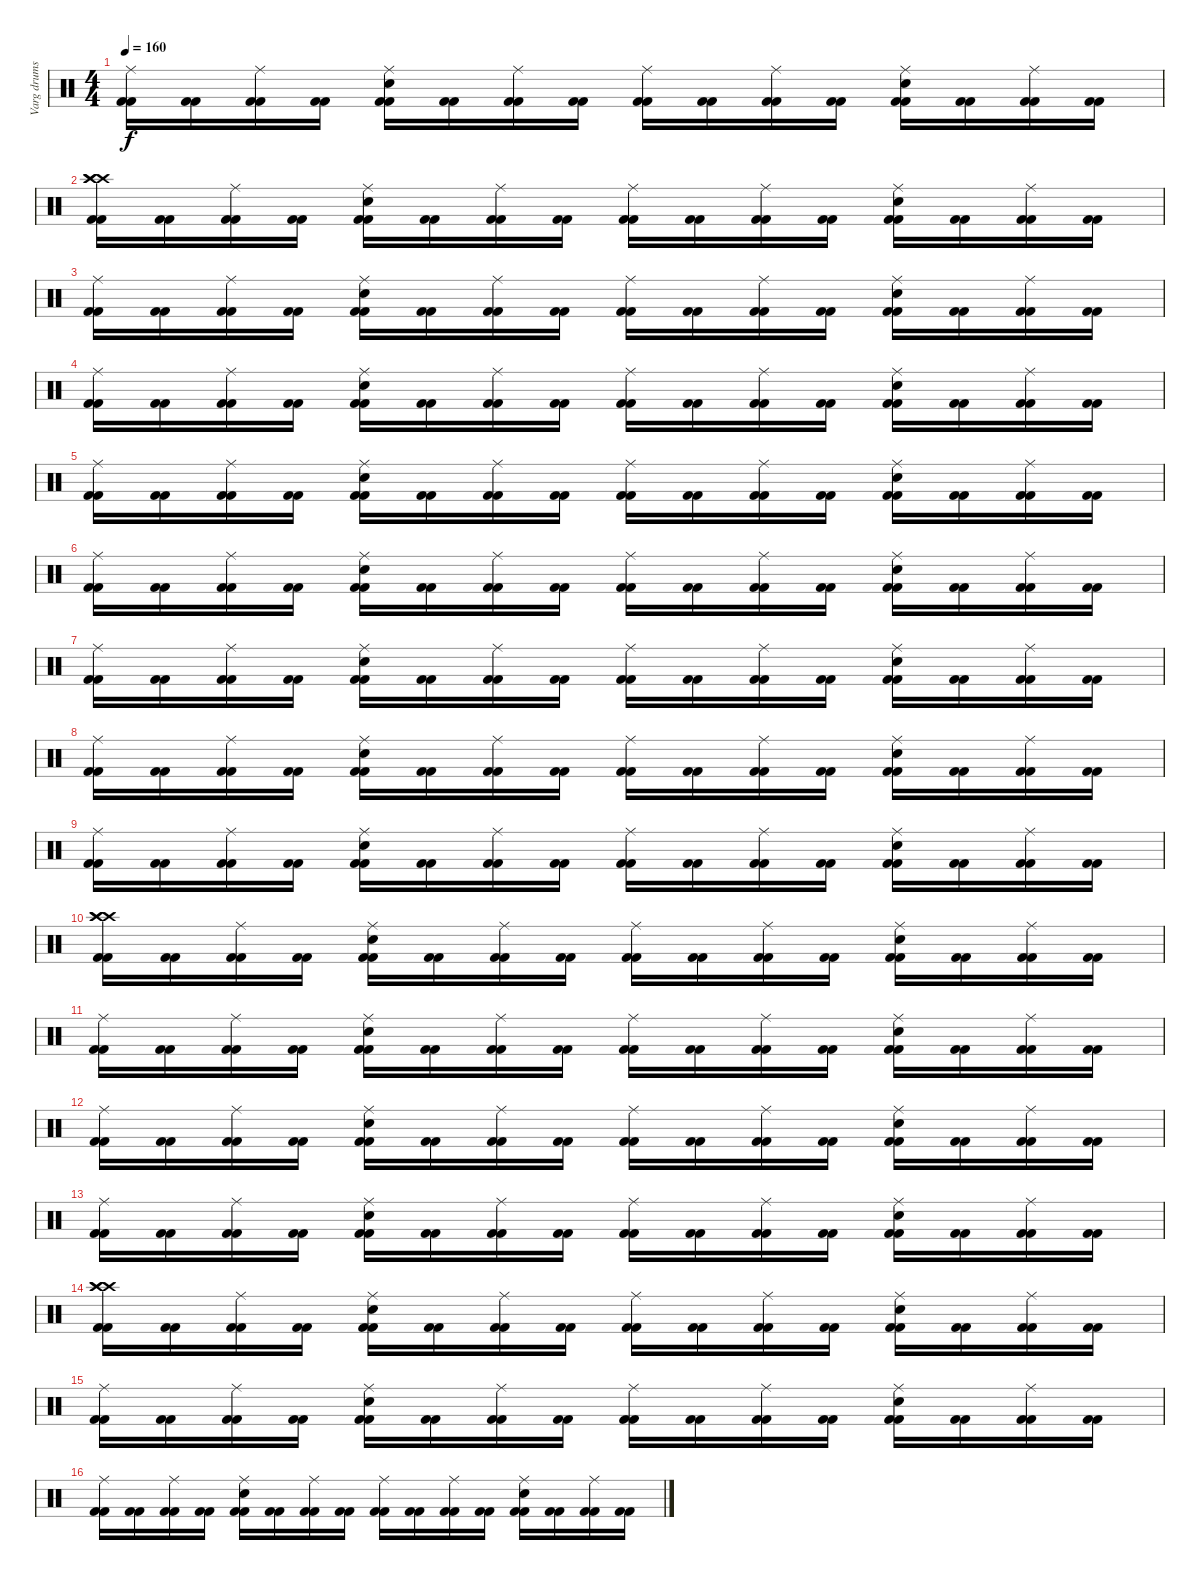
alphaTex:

\track ("Varg drums" "Varg drums") {instrument percussion}
\staff {score}
\articulation defaults
\ts (4 4)
\tempo 160
\clef neutral
\ks c
("Ride (middle)" "Kick (hit) 2" "Kick (hit) 2").16{dy f} ("Kick (hit) 2" "Kick (hit) 2").16 ("Ride (middle)" "Kick (hit) 2" "Kick (hit) 2").16 ("Kick (hit) 2" "Kick (hit) 2").16 ("Ride (middle)" "Electric Snare (hit)" "Kick (hit) 2" "Kick (hit) 2").16 ("Kick (hit) 2" "Kick (hit) 2").16 ("Ride (middle)" "Kick (hit) 2" "Kick (hit) 2").16 ("Kick (hit) 2" "Kick (hit) 2").16 ("Ride (middle)" "Kick (hit) 2" "Kick (hit) 2").16 ("Kick (hit) 2" "Kick (hit) 2").16 ("Ride (middle)" "Kick (hit) 2" "Kick (hit) 2").16 ("Kick (hit) 2" "Kick (hit) 2").16 ("Ride (middle)" "Electric Snare (hit)" "Kick (hit) 2" "Kick (hit) 2").16 ("Kick (hit) 2" "Kick (hit) 2").16 ("Ride (middle)" "Kick (hit) 2" "Kick (hit) 2").16 ("Kick (hit) 2" "Kick (hit) 2").16 |
("Crash high (hit)" "Crash high (hit)" "Crash high (hit)" "Kick (hit) 2" "Kick (hit) 2").16 ("Kick (hit) 2" "Kick (hit) 2").16 ("Ride (middle)" "Kick (hit) 2" "Kick (hit) 2").16 ("Kick (hit) 2" "Kick (hit) 2").16 ("Ride (middle)" "Electric Snare (hit)" "Kick (hit) 2" "Kick (hit) 2").16 ("Kick (hit) 2" "Kick (hit) 2").16 ("Ride (middle)" "Kick (hit) 2" "Kick (hit) 2").16 ("Kick (hit) 2" "Kick (hit) 2").16 ("Ride (middle)" "Kick (hit) 2" "Kick (hit) 2").16 ("Kick (hit) 2" "Kick (hit) 2").16 ("Ride (middle)" "Kick (hit) 2" "Kick (hit) 2").16 ("Kick (hit) 2" "Kick (hit) 2").16 ("Ride (middle)" "Electric Snare (hit)" "Kick (hit) 2" "Kick (hit) 2").16 ("Kick (hit) 2" "Kick (hit) 2").16 ("Ride (middle)" "Kick (hit) 2" "Kick (hit) 2").16 ("Kick (hit) 2" "Kick (hit) 2").16 |
("Ride (middle)" "Kick (hit) 2" "Kick (hit) 2").16 ("Kick (hit) 2" "Kick (hit) 2").16 ("Ride (middle)" "Kick (hit) 2" "Kick (hit) 2").16 ("Kick (hit) 2" "Kick (hit) 2").16 ("Ride (middle)" "Electric Snare (hit)" "Kick (hit) 2" "Kick (hit) 2").16 ("Kick (hit) 2" "Kick (hit) 2").16 ("Ride (middle)" "Kick (hit) 2" "Kick (hit) 2").16 ("Kick (hit) 2" "Kick (hit) 2").16 ("Ride (middle)" "Kick (hit) 2" "Kick (hit) 2").16 ("Kick (hit) 2" "Kick (hit) 2").16 ("Ride (middle)" "Kick (hit) 2" "Kick (hit) 2").16 ("Kick (hit) 2" "Kick (hit) 2").16 ("Ride (middle)" "Electric Snare (hit)" "Kick (hit) 2" "Kick (hit) 2").16 ("Kick (hit) 2" "Kick (hit) 2").16 ("Ride (middle)" "Kick (hit) 2" "Kick (hit) 2").16 ("Kick (hit) 2" "Kick (hit) 2").16 |
("Ride (middle)" "Kick (hit) 2" "Kick (hit) 2").16 ("Kick (hit) 2" "Kick (hit) 2").16 ("Ride (middle)" "Kick (hit) 2" "Kick (hit) 2").16 ("Kick (hit) 2" "Kick (hit) 2").16 ("Ride (middle)" "Electric Snare (hit)" "Kick (hit) 2" "Kick (hit) 2").16 ("Kick (hit) 2" "Kick (hit) 2").16 ("Ride (middle)" "Kick (hit) 2" "Kick (hit) 2").16 ("Kick (hit) 2" "Kick (hit) 2").16 ("Ride (middle)" "Kick (hit) 2" "Kick (hit) 2").16 ("Kick (hit) 2" "Kick (hit) 2").16 ("Ride (middle)" "Kick (hit) 2" "Kick (hit) 2").16 ("Kick (hit) 2" "Kick (hit) 2").16 ("Ride (middle)" "Electric Snare (hit)" "Kick (hit) 2" "Kick (hit) 2").16 ("Kick (hit) 2" "Kick (hit) 2").16 ("Ride (middle)" "Kick (hit) 2" "Kick (hit) 2").16 ("Kick (hit) 2" "Kick (hit) 2").16 |
("Ride (middle)" "Kick (hit) 2" "Kick (hit) 2").16 ("Kick (hit) 2" "Kick (hit) 2").16 ("Ride (middle)" "Kick (hit) 2" "Kick (hit) 2").16 ("Kick (hit) 2" "Kick (hit) 2").16 ("Ride (middle)" "Electric Snare (hit)" "Kick (hit) 2" "Kick (hit) 2").16 ("Kick (hit) 2" "Kick (hit) 2").16 ("Ride (middle)" "Kick (hit) 2" "Kick (hit) 2").16 ("Kick (hit) 2" "Kick (hit) 2").16 ("Ride (middle)" "Kick (hit) 2" "Kick (hit) 2").16 ("Kick (hit) 2" "Kick (hit) 2").16 ("Ride (middle)" "Kick (hit) 2" "Kick (hit) 2").16 ("Kick (hit) 2" "Kick (hit) 2").16 ("Ride (middle)" "Electric Snare (hit)" "Kick (hit) 2" "Kick (hit) 2").16 ("Kick (hit) 2" "Kick (hit) 2").16 ("Ride (middle)" "Kick (hit) 2" "Kick (hit) 2").16 ("Kick (hit) 2" "Kick (hit) 2").16 |
("Ride (middle)" "Kick (hit) 2" "Kick (hit) 2").16 ("Kick (hit) 2" "Kick (hit) 2").16 ("Ride (middle)" "Kick (hit) 2" "Kick (hit) 2").16 ("Kick (hit) 2" "Kick (hit) 2").16 ("Ride (middle)" "Electric Snare (hit)" "Kick (hit) 2" "Kick (hit) 2").16 ("Kick (hit) 2" "Kick (hit) 2").16 ("Ride (middle)" "Kick (hit) 2" "Kick (hit) 2").16 ("Kick (hit) 2" "Kick (hit) 2").16 ("Ride (middle)" "Kick (hit) 2" "Kick (hit) 2").16 ("Kick (hit) 2" "Kick (hit) 2").16 ("Ride (middle)" "Kick (hit) 2" "Kick (hit) 2").16 ("Kick (hit) 2" "Kick (hit) 2").16 ("Ride (middle)" "Electric Snare (hit)" "Kick (hit) 2" "Kick (hit) 2").16 ("Kick (hit) 2" "Kick (hit) 2").16 ("Ride (middle)" "Kick (hit) 2" "Kick (hit) 2").16 ("Kick (hit) 2" "Kick (hit) 2").16 |
("Ride (middle)" "Kick (hit) 2" "Kick (hit) 2").16 ("Kick (hit) 2" "Kick (hit) 2").16 ("Ride (middle)" "Kick (hit) 2" "Kick (hit) 2").16 ("Kick (hit) 2" "Kick (hit) 2").16 ("Ride (middle)" "Electric Snare (hit)" "Kick (hit) 2" "Kick (hit) 2").16 ("Kick (hit) 2" "Kick (hit) 2").16 ("Ride (middle)" "Kick (hit) 2" "Kick (hit) 2").16 ("Kick (hit) 2" "Kick (hit) 2").16 ("Ride (middle)" "Kick (hit) 2" "Kick (hit) 2").16 ("Kick (hit) 2" "Kick (hit) 2").16 ("Ride (middle)" "Kick (hit) 2" "Kick (hit) 2").16 ("Kick (hit) 2" "Kick (hit) 2").16 ("Ride (middle)" "Electric Snare (hit)" "Kick (hit) 2" "Kick (hit) 2").16 ("Kick (hit) 2" "Kick (hit) 2").16 ("Ride (middle)" "Kick (hit) 2" "Kick (hit) 2").16 ("Kick (hit) 2" "Kick (hit) 2").16 |
("Ride (middle)" "Kick (hit) 2" "Kick (hit) 2").16 ("Kick (hit) 2" "Kick (hit) 2").16 ("Ride (middle)" "Kick (hit) 2" "Kick (hit) 2").16 ("Kick (hit) 2" "Kick (hit) 2").16 ("Ride (middle)" "Electric Snare (hit)" "Kick (hit) 2" "Kick (hit) 2").16 ("Kick (hit) 2" "Kick (hit) 2").16 ("Ride (middle)" "Kick (hit) 2" "Kick (hit) 2").16 ("Kick (hit) 2" "Kick (hit) 2").16 ("Ride (middle)" "Kick (hit) 2" "Kick (hit) 2").16 ("Kick (hit) 2" "Kick (hit) 2").16 ("Ride (middle)" "Kick (hit) 2" "Kick (hit) 2").16 ("Kick (hit) 2" "Kick (hit) 2").16 ("Ride (middle)" "Electric Snare (hit)" "Kick (hit) 2" "Kick (hit) 2").16 ("Kick (hit) 2" "Kick (hit) 2").16 ("Ride (middle)" "Kick (hit) 2" "Kick (hit) 2").16 ("Kick (hit) 2" "Kick (hit) 2").16 |
("Ride (middle)" "Kick (hit) 2" "Kick (hit) 2").16 ("Kick (hit) 2" "Kick (hit) 2").16 ("Ride (middle)" "Kick (hit) 2" "Kick (hit) 2").16 ("Kick (hit) 2" "Kick (hit) 2").16 ("Ride (middle)" "Electric Snare (hit)" "Kick (hit) 2" "Kick (hit) 2").16 ("Kick (hit) 2" "Kick (hit) 2").16 ("Ride (middle)" "Kick (hit) 2" "Kick (hit) 2").16 ("Kick (hit) 2" "Kick (hit) 2").16 ("Ride (middle)" "Kick (hit) 2" "Kick (hit) 2").16 ("Kick (hit) 2" "Kick (hit) 2").16 ("Ride (middle)" "Kick (hit) 2" "Kick (hit) 2").16 ("Kick (hit) 2" "Kick (hit) 2").16 ("Ride (middle)" "Electric Snare (hit)" "Kick (hit) 2" "Kick (hit) 2").16 ("Kick (hit) 2" "Kick (hit) 2").16 ("Ride (middle)" "Kick (hit) 2" "Kick (hit) 2").16 ("Kick (hit) 2" "Kick (hit) 2").16 |
("Crash high (hit)" "Crash high (hit)" "Crash high (hit)" "Kick (hit) 2" "Kick (hit) 2").16 ("Kick (hit) 2" "Kick (hit) 2").16 ("Ride (middle)" "Kick (hit) 2" "Kick (hit) 2").16 ("Kick (hit) 2" "Kick (hit) 2").16 ("Ride (middle)" "Electric Snare (hit)" "Kick (hit) 2" "Kick (hit) 2").16 ("Kick (hit) 2" "Kick (hit) 2").16 ("Ride (middle)" "Kick (hit) 2" "Kick (hit) 2").16 ("Kick (hit) 2" "Kick (hit) 2").16 ("Ride (middle)" "Kick (hit) 2" "Kick (hit) 2").16 ("Kick (hit) 2" "Kick (hit) 2").16 ("Ride (middle)" "Kick (hit) 2" "Kick (hit) 2").16 ("Kick (hit) 2" "Kick (hit) 2").16 ("Ride (middle)" "Electric Snare (hit)" "Kick (hit) 2" "Kick (hit) 2").16 ("Kick (hit) 2" "Kick (hit) 2").16 ("Ride (middle)" "Kick (hit) 2" "Kick (hit) 2").16 ("Kick (hit) 2" "Kick (hit) 2").16 |
("Ride (middle)" "Kick (hit) 2" "Kick (hit) 2").16 ("Kick (hit) 2" "Kick (hit) 2").16 ("Ride (middle)" "Kick (hit) 2" "Kick (hit) 2").16 ("Kick (hit) 2" "Kick (hit) 2").16 ("Ride (middle)" "Electric Snare (hit)" "Kick (hit) 2" "Kick (hit) 2").16 ("Kick (hit) 2" "Kick (hit) 2").16 ("Ride (middle)" "Kick (hit) 2" "Kick (hit) 2").16 ("Kick (hit) 2" "Kick (hit) 2").16 ("Ride (middle)" "Kick (hit) 2" "Kick (hit) 2").16 ("Kick (hit) 2" "Kick (hit) 2").16 ("Ride (middle)" "Kick (hit) 2" "Kick (hit) 2").16 ("Kick (hit) 2" "Kick (hit) 2").16 ("Ride (middle)" "Electric Snare (hit)" "Kick (hit) 2" "Kick (hit) 2").16 ("Kick (hit) 2" "Kick (hit) 2").16 ("Ride (middle)" "Kick (hit) 2" "Kick (hit) 2").16 ("Kick (hit) 2" "Kick (hit) 2").16 |
("Ride (middle)" "Kick (hit) 2" "Kick (hit) 2").16 ("Kick (hit) 2" "Kick (hit) 2").16 ("Ride (middle)" "Kick (hit) 2" "Kick (hit) 2").16 ("Kick (hit) 2" "Kick (hit) 2").16 ("Ride (middle)" "Electric Snare (hit)" "Kick (hit) 2" "Kick (hit) 2").16 ("Kick (hit) 2" "Kick (hit) 2").16 ("Ride (middle)" "Kick (hit) 2" "Kick (hit) 2").16 ("Kick (hit) 2" "Kick (hit) 2").16 ("Ride (middle)" "Kick (hit) 2" "Kick (hit) 2").16 ("Kick (hit) 2" "Kick (hit) 2").16 ("Ride (middle)" "Kick (hit) 2" "Kick (hit) 2").16 ("Kick (hit) 2" "Kick (hit) 2").16 ("Ride (middle)" "Electric Snare (hit)" "Kick (hit) 2" "Kick (hit) 2").16 ("Kick (hit) 2" "Kick (hit) 2").16 ("Ride (middle)" "Kick (hit) 2" "Kick (hit) 2").16 ("Kick (hit) 2" "Kick (hit) 2").16 |
("Ride (middle)" "Kick (hit) 2" "Kick (hit) 2").16 ("Kick (hit) 2" "Kick (hit) 2").16 ("Ride (middle)" "Kick (hit) 2" "Kick (hit) 2").16 ("Kick (hit) 2" "Kick (hit) 2").16 ("Ride (middle)" "Electric Snare (hit)" "Kick (hit) 2" "Kick (hit) 2").16 ("Kick (hit) 2" "Kick (hit) 2").16 ("Ride (middle)" "Kick (hit) 2" "Kick (hit) 2").16 ("Kick (hit) 2" "Kick (hit) 2").16 ("Ride (middle)" "Kick (hit) 2" "Kick (hit) 2").16 ("Kick (hit) 2" "Kick (hit) 2").16 ("Ride (middle)" "Kick (hit) 2" "Kick (hit) 2").16 ("Kick (hit) 2" "Kick (hit) 2").16 ("Ride (middle)" "Electric Snare (hit)" "Kick (hit) 2" "Kick (hit) 2").16 ("Kick (hit) 2" "Kick (hit) 2").16 ("Ride (middle)" "Kick (hit) 2" "Kick (hit) 2").16 ("Kick (hit) 2" "Kick (hit) 2").16 |
("Crash high (hit)" "Crash high (hit)" "Crash high (hit)" "Kick (hit) 2" "Kick (hit) 2").16 ("Kick (hit) 2" "Kick (hit) 2").16 ("Ride (middle)" "Kick (hit) 2" "Kick (hit) 2").16 ("Kick (hit) 2" "Kick (hit) 2").16 ("Ride (middle)" "Electric Snare (hit)" "Kick (hit) 2" "Kick (hit) 2").16 ("Kick (hit) 2" "Kick (hit) 2").16 ("Ride (middle)" "Kick (hit) 2" "Kick (hit) 2").16 ("Kick (hit) 2" "Kick (hit) 2").16 ("Ride (middle)" "Kick (hit) 2" "Kick (hit) 2").16 ("Kick (hit) 2" "Kick (hit) 2").16 ("Ride (middle)" "Kick (hit) 2" "Kick (hit) 2").16 ("Kick (hit) 2" "Kick (hit) 2").16 ("Ride (middle)" "Electric Snare (hit)" "Kick (hit) 2" "Kick (hit) 2").16 ("Kick (hit) 2" "Kick (hit) 2").16 ("Ride (middle)" "Kick (hit) 2" "Kick (hit) 2").16 ("Kick (hit) 2" "Kick (hit) 2").16 |
("Ride (middle)" "Kick (hit) 2" "Kick (hit) 2").16 ("Kick (hit) 2" "Kick (hit) 2").16 ("Ride (middle)" "Kick (hit) 2" "Kick (hit) 2").16 ("Kick (hit) 2" "Kick (hit) 2").16 ("Ride (middle)" "Electric Snare (hit)" "Kick (hit) 2" "Kick (hit) 2").16 ("Kick (hit) 2" "Kick (hit) 2").16 ("Ride (middle)" "Kick (hit) 2" "Kick (hit) 2").16 ("Kick (hit) 2" "Kick (hit) 2").16 ("Ride (middle)" "Kick (hit) 2" "Kick (hit) 2").16 ("Kick (hit) 2" "Kick (hit) 2").16 ("Ride (middle)" "Kick (hit) 2" "Kick (hit) 2").16 ("Kick (hit) 2" "Kick (hit) 2").16 ("Ride (middle)" "Electric Snare (hit)" "Kick (hit) 2" "Kick (hit) 2").16 ("Kick (hit) 2" "Kick (hit) 2").16 ("Ride (middle)" "Kick (hit) 2" "Kick (hit) 2").16 ("Kick (hit) 2" "Kick (hit) 2").16 |
("Ride (middle)" "Kick (hit) 2" "Kick (hit) 2").16 ("Kick (hit) 2" "Kick (hit) 2").16 ("Ride (middle)" "Kick (hit) 2" "Kick (hit) 2").16 ("Kick (hit) 2" "Kick (hit) 2").16 ("Ride (middle)" "Electric Snare (hit)" "Kick (hit) 2" "Kick (hit) 2").16 ("Kick (hit) 2" "Kick (hit) 2").16 ("Ride (middle)" "Kick (hit) 2" "Kick (hit) 2").16 ("Kick (hit) 2" "Kick (hit) 2").16 ("Ride (middle)" "Kick (hit) 2" "Kick (hit) 2").16 ("Kick (hit) 2" "Kick (hit) 2").16 ("Ride (middle)" "Kick (hit) 2" "Kick (hit) 2").16 ("Kick (hit) 2" "Kick (hit) 2").16 ("Ride (middle)" "Electric Snare (hit)" "Kick (hit) 2" "Kick (hit) 2").16 ("Kick (hit) 2" "Kick (hit) 2").16 ("Ride (middle)" "Kick (hit) 2" "Kick (hit) 2").16 ("Kick (hit) 2" "Kick (hit) 2").16
